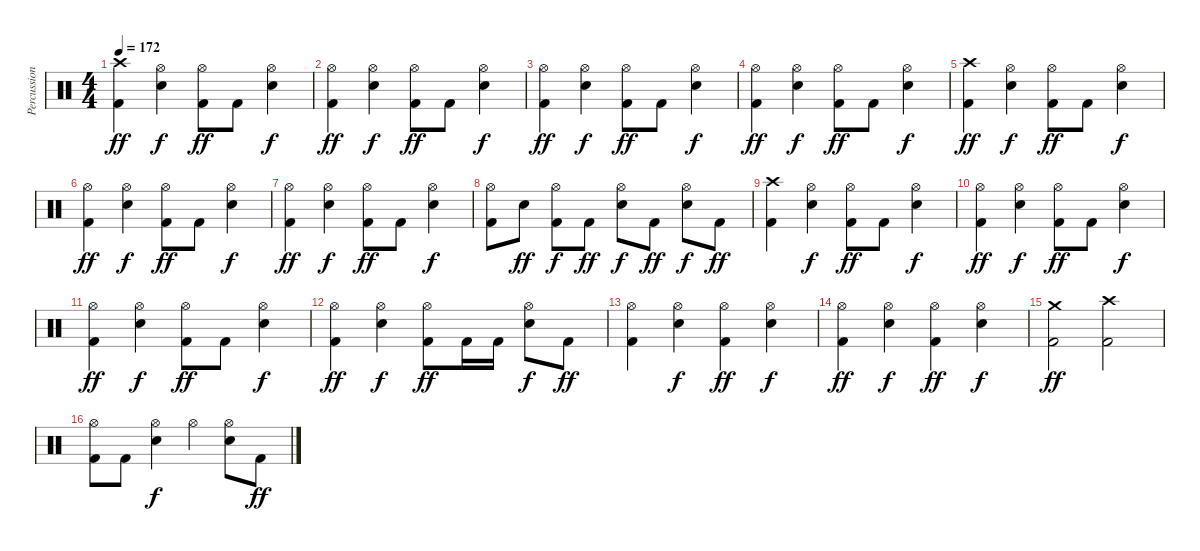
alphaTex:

\track ("Percussion" "Percussion") {instrument percussion}
\staff {score}
\articulation defaults
\ts (4 4)
\tempo 172
\clef neutral
\ks c
("Crash high (hit)" "Kick (hit) 2").4{dy ff} ("Hi-Hat (open)" "Snare (hit) 2").4{dy f} ("Hi-Hat (open)" "Kick (hit) 2").8{dy ff} "Kick (hit) 2".8 ("Hi-Hat (open)" "Snare (hit) 2").4{dy f} |
("Hi-Hat (open)" "Kick (hit) 2").4{dy ff} ("Hi-Hat (open)" "Snare (hit) 2").4{dy f} ("Hi-Hat (open)" "Kick (hit) 2").8{dy ff} "Kick (hit) 2".8 ("Hi-Hat (open)" "Snare (hit) 2").4{dy f} |
("Hi-Hat (open)" "Kick (hit) 2").4{dy ff} ("Hi-Hat (open)" "Snare (hit) 2").4{dy f} ("Hi-Hat (open)" "Kick (hit) 2").8{dy ff} "Kick (hit) 2".8 ("Hi-Hat (open)" "Snare (hit) 2").4{dy f} |
("Hi-Hat (open)" "Kick (hit) 2").4{dy ff} ("Hi-Hat (open)" "Snare (hit) 2").4{dy f} ("Hi-Hat (open)" "Kick (hit) 2").8{dy ff} "Kick (hit) 2".8 ("Hi-Hat (open)" "Snare (hit) 2").4{dy f} |
("Crash high (hit)" "Kick (hit) 2").4{dy ff} ("Hi-Hat (open)" "Snare (hit) 2").4{dy f} ("Hi-Hat (open)" "Kick (hit) 2").8{dy ff} "Kick (hit) 2".8 ("Hi-Hat (open)" "Snare (hit) 2").4{dy f} |
("Hi-Hat (open)" "Kick (hit) 2").4{dy ff} ("Hi-Hat (open)" "Snare (hit) 2").4{dy f} ("Hi-Hat (open)" "Kick (hit) 2").8{dy ff} "Kick (hit) 2".8 ("Hi-Hat (open)" "Snare (hit) 2").4{dy f} |
("Hi-Hat (open)" "Kick (hit) 2").4{dy ff} ("Hi-Hat (open)" "Snare (hit) 2").4{dy f} ("Hi-Hat (open)" "Kick (hit) 2").8{dy ff} "Kick (hit) 2".8 ("Hi-Hat (open)" "Snare (hit) 2").4{dy f} |
("Hi-Hat (open)" "Kick (hit) 2").8 "Snare (hit) 2".8{dy ff} ("Hi-Hat (open)" "Kick (hit) 2").8{dy f} "Kick (hit) 2".8{dy ff} ("Hi-Hat (open)" "Snare (hit) 2").8{dy f} "Kick (hit) 2".8{dy ff} ("Hi-Hat (open)" "Snare (hit) 2").8{dy f} "Kick (hit) 2".8{dy ff} |
("Crash high (hit)" "Kick (hit) 2").4 ("Hi-Hat (open)" "Snare (hit) 2").4{dy f} ("Hi-Hat (open)" "Kick (hit) 2").8{dy ff} "Kick (hit) 2".8 ("Hi-Hat (open)" "Snare (hit) 2").4{dy f} |
("Hi-Hat (open)" "Kick (hit) 2").4{dy ff} ("Hi-Hat (open)" "Snare (hit) 2").4{dy f} ("Hi-Hat (open)" "Kick (hit) 2").8{dy ff} "Kick (hit) 2".8 ("Hi-Hat (open)" "Snare (hit) 2").4{dy f} |
("Hi-Hat (open)" "Kick (hit) 2").4{dy ff} ("Hi-Hat (open)" "Snare (hit) 2").4{dy f} ("Hi-Hat (open)" "Kick (hit) 2").8{dy ff} "Kick (hit) 2".8 ("Hi-Hat (open)" "Snare (hit) 2").4{dy f} |
("Hi-Hat (open)" "Kick (hit) 2").4{dy ff} ("Hi-Hat (open)" "Snare (hit) 2").4{dy f} ("Hi-Hat (open)" "Kick (hit) 2").8{dy ff} "Kick (hit) 2".16 "Kick (hit) 2".16 ("Hi-Hat (open)" "Snare (hit) 2").8{dy f} "Kick (hit) 2".8{dy ff} |
("Hi-Hat (open)" "Kick (hit) 2").4 ("Hi-Hat (open)" "Snare (hit) 2").4{dy f} ("Hi-Hat (open)" "Kick (hit) 2").4{dy ff} ("Hi-Hat (open)" "Snare (hit) 2").4{dy f} |
("Hi-Hat (open)" "Kick (hit) 2").4{dy ff} ("Hi-Hat (open)" "Snare (hit) 2").4{dy f} ("Hi-Hat (open)" "Kick (hit) 2").4{dy ff} ("Hi-Hat (open)" "Snare (hit) 2").4{dy f} |
("Crash medium (hit)" "Kick (hit) 2").2{dy ff} ("Crash high (hit)" "Kick (hit) 2").2 |
("Hi-Hat (open)" "Kick (hit) 2").8 "Kick (hit) 2".8 ("Hi-Hat (open)" "Snare (hit) 2").4{dy f} "Hi-Hat (open)".4 ("Hi-Hat (open)" "Snare (hit) 2").8 "Kick (hit) 2".8{dy ff}
